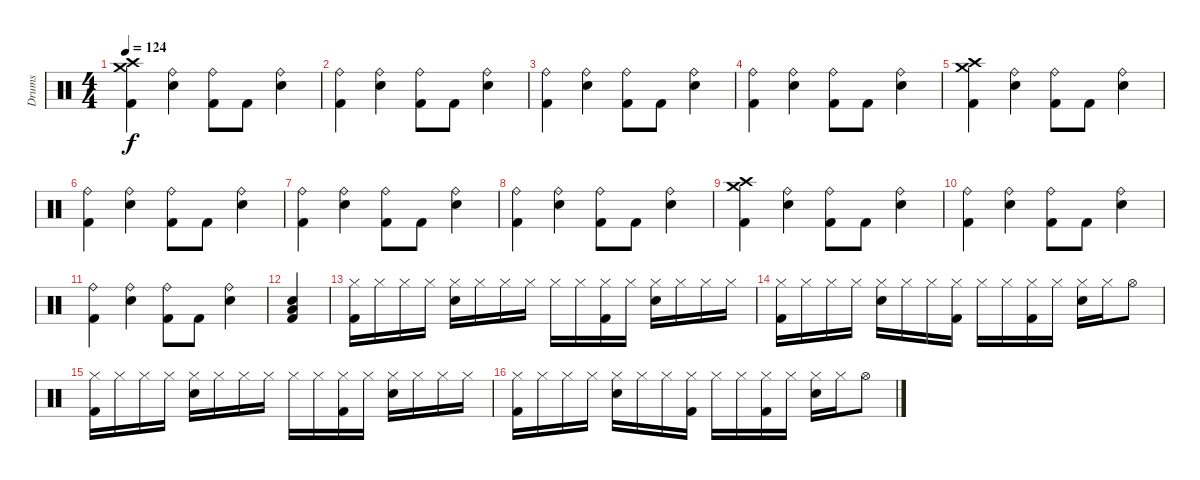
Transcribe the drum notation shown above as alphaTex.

\track ("Drums" "Drums") {instrument percussion}
\staff {score}
\articulation defaults
\ts (4 4)
\tempo 124
\clef neutral
\ks c
("Crash high (hit)" "Crash medium (hit)" "Kick (hit) 2").4{dy f} ("Ride (bell)" "Electric Snare (hit)").4 ("Ride (bell)" "Kick (hit) 2").8 "Kick (hit) 2".8 ("Ride (bell)" "Electric Snare (hit)").4 |
("Ride (bell)" "Kick (hit) 2").4 ("Ride (bell)" "Electric Snare (hit)").4 ("Ride (bell)" "Kick (hit) 2").8 "Kick (hit) 2".8 ("Ride (bell)" "Electric Snare (hit)").4 |
("Ride (bell)" "Kick (hit) 2").4 ("Ride (bell)" "Electric Snare (hit)").4 ("Ride (bell)" "Kick (hit) 2").8 "Kick (hit) 2".8 ("Ride (bell)" "Electric Snare (hit)").4 |
("Ride (bell)" "Kick (hit) 2").4 ("Ride (bell)" "Electric Snare (hit)").4 ("Ride (bell)" "Kick (hit) 2").8 "Kick (hit) 2".8 ("Ride (bell)" "Electric Snare (hit)").4 |
("Crash high (hit)" "Crash medium (hit)" "Kick (hit) 2").4 ("Ride (bell)" "Electric Snare (hit)").4 ("Ride (bell)" "Kick (hit) 2").8 "Kick (hit) 2".8 ("Ride (bell)" "Electric Snare (hit)").4 |
("Ride (bell)" "Kick (hit) 2").4 ("Ride (bell)" "Electric Snare (hit)").4 ("Ride (bell)" "Kick (hit) 2").8 "Kick (hit) 2".8 ("Ride (bell)" "Electric Snare (hit)").4 |
("Ride (bell)" "Kick (hit) 2").4 ("Ride (bell)" "Electric Snare (hit)").4 ("Ride (bell)" "Kick (hit) 2").8 "Kick (hit) 2".8 ("Ride (bell)" "Electric Snare (hit)").4 |
("Ride (bell)" "Kick (hit) 2").4 ("Ride (bell)" "Electric Snare (hit)").4 ("Ride (bell)" "Kick (hit) 2").8 "Kick (hit) 2".8 ("Ride (bell)" "Electric Snare (hit)").4 |
("Crash high (hit)" "Crash medium (hit)" "Kick (hit) 2").4 ("Ride (bell)" "Electric Snare (hit)").4 ("Ride (bell)" "Kick (hit) 2").8 "Kick (hit) 2".8 ("Ride (bell)" "Electric Snare (hit)").4 |
("Ride (bell)" "Kick (hit) 2").4 ("Ride (bell)" "Electric Snare (hit)").4 ("Ride (bell)" "Kick (hit) 2").8 "Kick (hit) 2".8 ("Ride (bell)" "Electric Snare (hit)").4 |
("Ride (bell)" "Kick (hit) 2").4 ("Ride (bell)" "Electric Snare (hit)").4 ("Ride (bell)" "Kick (hit) 2").8 "Kick (hit) 2".8 ("Ride (bell)" "Electric Snare (hit)").4 |
("Low Tom (hit)" "Electric Snare (hit)" "Kick (hit) 2").4 |
("Hi-Hat (closed)" "Kick (hit) 2").16 "Hi-Hat (closed)".16 "Hi-Hat (closed)".16 "Hi-Hat (closed)".16 ("Hi-Hat (closed)" "Electric Snare (hit)").16 "Hi-Hat (closed)".16 "Hi-Hat (closed)".16 "Hi-Hat (closed)".16 "Hi-Hat (closed)".16 "Hi-Hat (closed)".16 ("Hi-Hat (closed)" "Kick (hit) 2").16 "Hi-Hat (closed)".16 ("Hi-Hat (closed)" "Electric Snare (hit)").16 "Hi-Hat (closed)".16 "Hi-Hat (closed)".16 "Hi-Hat (closed)".16 |
("Hi-Hat (closed)" "Kick (hit) 2").16 "Hi-Hat (closed)".16 "Hi-Hat (closed)".16 "Hi-Hat (closed)".16 ("Hi-Hat (closed)" "Electric Snare (hit)").16 "Hi-Hat (closed)".16 "Hi-Hat (closed)".16 ("Hi-Hat (closed)" "Kick (hit) 2").16 "Hi-Hat (closed)".16 "Hi-Hat (closed)".16 ("Hi-Hat (closed)" "Kick (hit) 2").16 "Hi-Hat (closed)".16 ("Hi-Hat (closed)" "Electric Snare (hit)").16 "Hi-Hat (closed)".16 "Hi-Hat (open)".8 |
("Hi-Hat (closed)" "Kick (hit) 2").16 "Hi-Hat (closed)".16 "Hi-Hat (closed)".16 "Hi-Hat (closed)".16 ("Hi-Hat (closed)" "Electric Snare (hit)").16 "Hi-Hat (closed)".16 "Hi-Hat (closed)".16 "Hi-Hat (closed)".16 "Hi-Hat (closed)".16 "Hi-Hat (closed)".16 ("Hi-Hat (closed)" "Kick (hit) 2").16 "Hi-Hat (closed)".16 ("Hi-Hat (closed)" "Electric Snare (hit)").16 "Hi-Hat (closed)".16 "Hi-Hat (closed)".16 "Hi-Hat (closed)".16 |
("Hi-Hat (closed)" "Kick (hit) 2").16 "Hi-Hat (closed)".16 "Hi-Hat (closed)".16 "Hi-Hat (closed)".16 ("Hi-Hat (closed)" "Electric Snare (hit)").16 "Hi-Hat (closed)".16 "Hi-Hat (closed)".16 ("Hi-Hat (closed)" "Kick (hit) 2").16 "Hi-Hat (closed)".16 "Hi-Hat (closed)".16 ("Hi-Hat (closed)" "Kick (hit) 2").16 "Hi-Hat (closed)".16 ("Hi-Hat (closed)" "Electric Snare (hit)").16 "Hi-Hat (closed)".16 "Hi-Hat (open)".8
